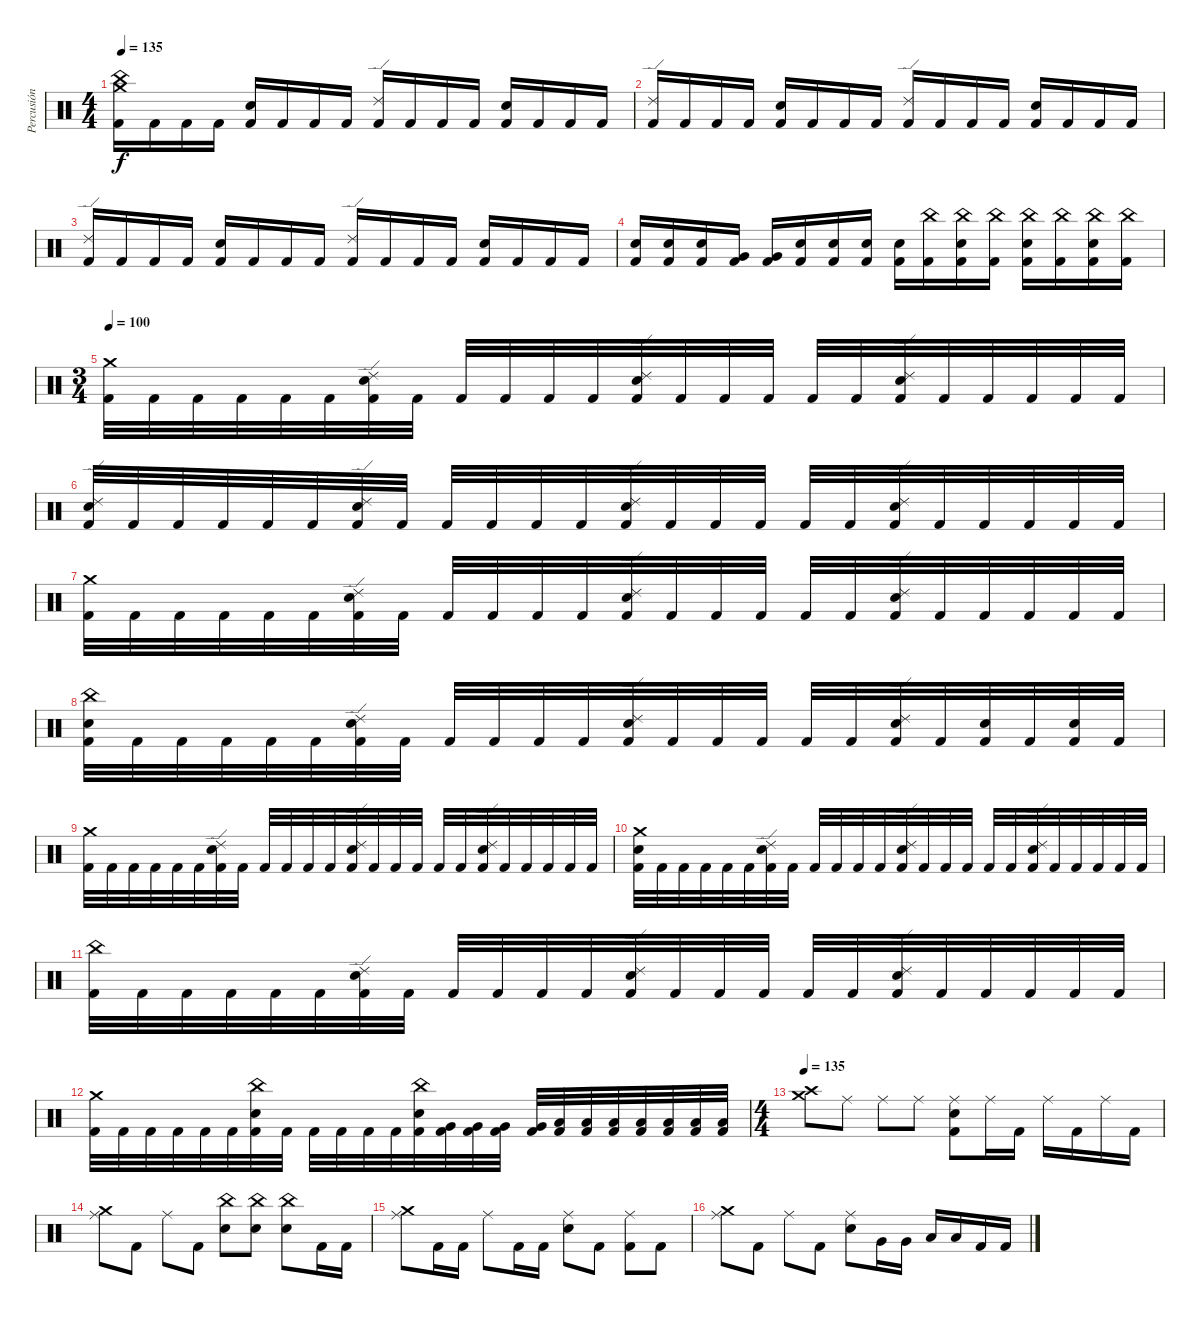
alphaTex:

\track ("Percusión" "Percusión") {instrument percussion}
\staff {score}
\articulation defaults
\ts (4 4)
\tempo 135
\clef neutral
\ks c
("Crash medium (hit)" "China (hit)" "Kick (hit) 2").16{dy f} "Kick (hit) 2".16 "Kick (hit) 2".16 "Kick (hit) 2".16 ("Snare (hit) 2" "Kick (hit) 2").16 "Kick (hit) 2".16 "Kick (hit) 2".16 "Kick (hit) 2".16 ("Ride (edge) 2" "Kick (hit) 2").16 "Kick (hit) 2".16 "Kick (hit) 2".16 "Kick (hit) 2".16 ("Snare (hit) 2" "Kick (hit) 2").16 "Kick (hit) 2".16 "Kick (hit) 2".16 "Kick (hit) 2".16 |
("Ride (edge) 2" "Kick (hit) 2").16 "Kick (hit) 2".16 "Kick (hit) 2".16 "Kick (hit) 2".16 ("Snare (hit) 2" "Kick (hit) 2").16 "Kick (hit) 2".16 "Kick (hit) 2".16 "Kick (hit) 2".16 ("Ride (edge) 2" "Kick (hit) 2").16 "Kick (hit) 2".16 "Kick (hit) 2".16 "Kick (hit) 2".16 ("Snare (hit) 2" "Kick (hit) 2").16 "Kick (hit) 2".16 "Kick (hit) 2".16 "Kick (hit) 2".16 |
("Ride (edge) 2" "Kick (hit) 2").16 "Kick (hit) 2".16 "Kick (hit) 2".16 "Kick (hit) 2".16 ("Snare (hit) 2" "Kick (hit) 2").16 "Kick (hit) 2".16 "Kick (hit) 2".16 "Kick (hit) 2".16 ("Ride (edge) 2" "Kick (hit) 2").16 "Kick (hit) 2".16 "Kick (hit) 2".16 "Kick (hit) 2".16 ("Snare (hit) 2" "Kick (hit) 2").16 "Kick (hit) 2".16 "Kick (hit) 2".16 "Kick (hit) 2".16 |
("Snare (hit) 2" "Kick (hit) 2").16 ("Snare (hit) 2" "Kick (hit) 2").16 ("Snare (hit) 2" "Kick (hit) 2").16 ("Very Low Tom (hit)" "Kick (hit) 2").16 ("Very Low Tom (hit)" "Kick (hit) 2").16 ("Snare (hit) 2" "Kick (hit) 2").16 ("Snare (hit) 2" "Kick (hit) 2").16 ("Snare (hit) 2" "Kick (hit) 2").16 ("Snare (hit) 2" "Kick (hit) 2").16 ("China (hit)" "Kick (hit) 2").16 ("Snare (hit) 2" "China (hit)" "Kick (hit) 2").16 ("China (hit)" "Kick (hit) 2").16 ("Snare (hit) 2" "China (hit)" "Kick (hit) 2").16 ("China (hit)" "Kick (hit) 2").16 ("Snare (hit) 2" "China (hit)" "Kick (hit) 2").16 ("China (hit)" "Kick (hit) 2").16 |
\ts (3 4)
\tempo 100
("Crash medium (hit)" "Kick (hit) 2").32 "Kick (hit) 2".32 "Kick (hit) 2".32 "Kick (hit) 2".32 "Kick (hit) 2".32 "Kick (hit) 2".32 ("Snare (hit) 2" "Ride (edge) 2" "Kick (hit) 2").32 "Kick (hit) 2".32 "Kick (hit) 2".32 "Kick (hit) 2".32 "Kick (hit) 2".32 "Kick (hit) 2".32 ("Snare (hit) 2" "Ride (edge) 2" "Kick (hit) 2").32 "Kick (hit) 2".32 "Kick (hit) 2".32 "Kick (hit) 2".32 "Kick (hit) 2".32 "Kick (hit) 2".32 ("Snare (hit) 2" "Ride (edge) 2" "Kick (hit) 2").32 "Kick (hit) 2".32 "Kick (hit) 2".32 "Kick (hit) 2".32 "Kick (hit) 2".32 "Kick (hit) 2".32 |
("Snare (hit) 2" "Ride (edge) 2" "Kick (hit) 2").32 "Kick (hit) 2".32 "Kick (hit) 2".32 "Kick (hit) 2".32 "Kick (hit) 2".32 "Kick (hit) 2".32 ("Snare (hit) 2" "Ride (edge) 2" "Kick (hit) 2").32 "Kick (hit) 2".32 "Kick (hit) 2".32 "Kick (hit) 2".32 "Kick (hit) 2".32 "Kick (hit) 2".32 ("Snare (hit) 2" "Ride (edge) 2" "Kick (hit) 2").32 "Kick (hit) 2".32 "Kick (hit) 2".32 "Kick (hit) 2".32 "Kick (hit) 2".32 "Kick (hit) 2".32 ("Snare (hit) 2" "Ride (edge) 2" "Kick (hit) 2").32 "Kick (hit) 2".32 "Kick (hit) 2".32 "Kick (hit) 2".32 "Kick (hit) 2".32 "Kick (hit) 2".32 |
("Crash medium (hit)" "Kick (hit) 2").32 "Kick (hit) 2".32 "Kick (hit) 2".32 "Kick (hit) 2".32 "Kick (hit) 2".32 "Kick (hit) 2".32 ("Snare (hit) 2" "Ride (edge) 2" "Kick (hit) 2").32 "Kick (hit) 2".32 "Kick (hit) 2".32 "Kick (hit) 2".32 "Kick (hit) 2".32 "Kick (hit) 2".32 ("Snare (hit) 2" "Ride (edge) 2" "Kick (hit) 2").32 "Kick (hit) 2".32 "Kick (hit) 2".32 "Kick (hit) 2".32 "Kick (hit) 2".32 "Kick (hit) 2".32 ("Snare (hit) 2" "Ride (edge) 2" "Kick (hit) 2").32 "Kick (hit) 2".32 "Kick (hit) 2".32 "Kick (hit) 2".32 "Kick (hit) 2".32 "Kick (hit) 2".32 |
("Snare (hit) 2" "China (hit)" "Kick (hit) 2").32 "Kick (hit) 2".32 "Kick (hit) 2".32 "Kick (hit) 2".32 "Kick (hit) 2".32 "Kick (hit) 2".32 ("Snare (hit) 2" "Ride (edge) 2" "Kick (hit) 2").32 "Kick (hit) 2".32 "Kick (hit) 2".32 "Kick (hit) 2".32 "Kick (hit) 2".32 "Kick (hit) 2".32 ("Snare (hit) 2" "Ride (edge) 2" "Kick (hit) 2").32 "Kick (hit) 2".32 "Kick (hit) 2".32 "Kick (hit) 2".32 "Kick (hit) 2".32 "Kick (hit) 2".32 ("Snare (hit) 2" "Ride (edge) 2" "Kick (hit) 2").32 "Kick (hit) 2".32 ("Snare (hit) 2" "Kick (hit) 2").32 "Kick (hit) 2".32 ("Snare (hit) 2" "Kick (hit) 2").32 "Kick (hit) 2".32 |
("Crash medium (hit)" "Kick (hit) 2").32 "Kick (hit) 2".32 "Kick (hit) 2".32 "Kick (hit) 2".32 "Kick (hit) 2".32 "Kick (hit) 2".32 ("Snare (hit) 2" "Ride (edge) 2" "Kick (hit) 2").32 "Kick (hit) 2".32 "Kick (hit) 2".32 "Kick (hit) 2".32 "Kick (hit) 2".32 "Kick (hit) 2".32 ("Snare (hit) 2" "Ride (edge) 2" "Kick (hit) 2").32 "Kick (hit) 2".32 "Kick (hit) 2".32 "Kick (hit) 2".32 "Kick (hit) 2".32 "Kick (hit) 2".32 ("Snare (hit) 2" "Ride (edge) 2" "Kick (hit) 2").32 "Kick (hit) 2".32 "Kick (hit) 2".32 "Kick (hit) 2".32 "Kick (hit) 2".32 "Kick (hit) 2".32 |
("Snare (hit) 2" "Crash medium (hit)" "Kick (hit) 2").32 "Kick (hit) 2".32 "Kick (hit) 2".32 "Kick (hit) 2".32 "Kick (hit) 2".32 "Kick (hit) 2".32 ("Snare (hit) 2" "Ride (edge) 2" "Kick (hit) 2").32 "Kick (hit) 2".32 "Kick (hit) 2".32 "Kick (hit) 2".32 "Kick (hit) 2".32 "Kick (hit) 2".32 ("Snare (hit) 2" "Ride (edge) 2" "Kick (hit) 2").32 "Kick (hit) 2".32 "Kick (hit) 2".32 "Kick (hit) 2".32 "Kick (hit) 2".32 "Kick (hit) 2".32 ("Snare (hit) 2" "Ride (edge) 2" "Kick (hit) 2").32 "Kick (hit) 2".32 "Kick (hit) 2".32 "Kick (hit) 2".32 "Kick (hit) 2".32 "Kick (hit) 2".32 |
("China (hit)" "Kick (hit) 2").32 "Kick (hit) 2".32 "Kick (hit) 2".32 "Kick (hit) 2".32 "Kick (hit) 2".32 "Kick (hit) 2".32 ("Snare (hit) 2" "Ride (edge) 2" "Kick (hit) 2").32 "Kick (hit) 2".32 "Kick (hit) 2".32 "Kick (hit) 2".32 "Kick (hit) 2".32 "Kick (hit) 2".32 ("Snare (hit) 2" "Ride (edge) 2" "Kick (hit) 2").32 "Kick (hit) 2".32 "Kick (hit) 2".32 "Kick (hit) 2".32 "Kick (hit) 2".32 "Kick (hit) 2".32 ("Snare (hit) 2" "Ride (edge) 2" "Kick (hit) 2").32 "Kick (hit) 2".32 "Kick (hit) 2".32 "Kick (hit) 2".32 "Kick (hit) 2".32 "Kick (hit) 2".32 |
("Crash medium (hit)" "Kick (hit) 2").32 "Kick (hit) 2".32 "Kick (hit) 2".32 "Kick (hit) 2".32 "Kick (hit) 2".32 "Kick (hit) 2".32 ("Snare (hit) 2" "China (hit)" "Kick (hit) 2").32 "Kick (hit) 2".32 "Kick (hit) 2".32 "Kick (hit) 2".32 "Kick (hit) 2".32 "Kick (hit) 2".32 ("Snare (hit) 2" "China (hit)" "Kick (hit) 2").32 ("Very Low Tom (hit)" "Kick (hit) 2").32 ("Very Low Tom (hit)" "Kick (hit) 2").32 ("Very Low Tom (hit)" "Kick (hit) 2").32 ("Very Low Tom (hit)" "Kick (hit) 2").32 ("Low Floor Tom (hit)" "Kick (hit) 2").32 ("Low Floor Tom (hit)" "Kick (hit) 2").32 ("Low Floor Tom (hit)" "Kick (hit) 2").32 ("Low Tom (hit)" "Kick (hit) 2").32 ("Low Tom (hit)" "Kick (hit) 2").32 ("Low Tom (hit)" "Kick (hit) 2").32 ("Low Tom (hit)" "Kick (hit) 2").32 |
\ts (4 4)
\tempo 135
("Crash high (hit)" "Crash medium (hit)").8 "Ride (middle)".8 "Ride (middle)".8 "Ride (middle)".8 ("Ride (middle)" "Snare (hit) 2" "Kick (hit) 2").8 "Ride (middle)".16 "Kick (hit) 2".16 "Ride (middle)".16 "Kick (hit) 2".16 "Ride (middle)".16 "Kick (hit) 2".16 |
("Ride (middle)" "Crash medium (hit)").8 "Kick (hit) 2".8 "Ride (middle)".8 "Kick (hit) 2".8 ("Snare (hit) 2" "China (hit)").8 ("Snare (hit) 2" "China (hit)").8 ("Snare (hit) 2" "China (hit)").8 "Kick (hit) 2".16 "Kick (hit) 2".16 |
("Ride (middle)" "Crash medium (hit)").8 "Kick (hit) 2".16 "Kick (hit) 2".16 "Ride (middle)".8 "Kick (hit) 2".16 "Kick (hit) 2".16 ("Ride (middle)" "Snare (hit) 2").8 "Kick (hit) 2".8 ("Ride (middle)" "Kick (hit) 2").8 "Kick (hit) 2".8 |
("Ride (middle)" "Crash medium (hit)").8 "Kick (hit) 2".8 "Ride (middle)".8 "Kick (hit) 2".8 ("Ride (middle)" "Snare (hit) 2").8 "Very Low Tom (hit)".16 "Very Low Tom (hit)".16 "Low Floor Tom (hit)".16 "Low Floor Tom (hit)".16 "Kick (hit) 2".16 "Kick (hit) 2".16
